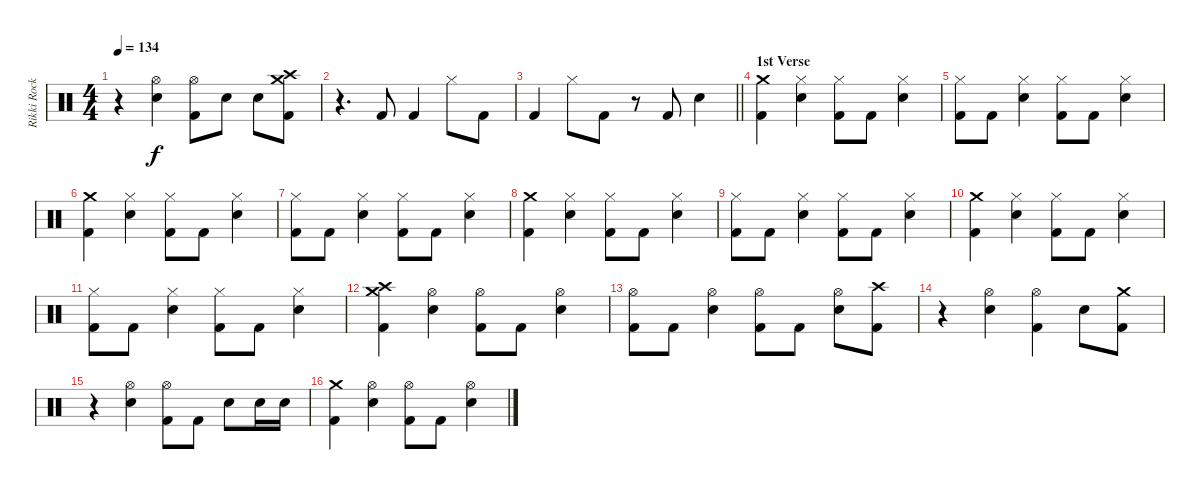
\track ("Rikki Rocket" "Rikki Rock") {instrument percussion}
\staff {score}
\articulation defaults
\ts (4 4)
\tempo 134
\clef neutral
\ks c
r.4{dy f} ("Hi-Hat (open)" "Snare (hit) 2").4 ("Hi-Hat (open)" "Kick (hit) 2").8 "Snare (hit) 2".8 "Snare (hit) 2".8 ("Crash medium (hit)" "Crash high (hit)" "Kick (hit) 2").8 |
r.4{d} "Kick (hit) 2".8 "Kick (hit) 2".4 "Hi-Hat (closed)".8 "Kick (hit) 2".8 |
\barLineRight lightlight "Kick (hit) 2".4 "Hi-Hat (closed)".8 "Kick (hit) 2".8
r.8 "Kick (hit) 2".8 "Snare (hit) 2".4 |
\section ("" "1st Verse")
("Crash medium (hit)" "Kick (hit) 2").4 ("Hi-Hat (closed)" "Snare (hit) 2").4 ("Hi-Hat (closed)" "Kick (hit) 2").8 "Kick (hit) 2".8 ("Hi-Hat (closed)" "Snare (hit) 2").4 |
("Hi-Hat (closed)" "Kick (hit) 2").8 "Kick (hit) 2".8 ("Hi-Hat (closed)" "Snare (hit) 2").4 ("Hi-Hat (closed)" "Kick (hit) 2").8 "Kick (hit) 2".8 ("Hi-Hat (closed)" "Snare (hit) 2").4 |
("Crash medium (hit)" "Kick (hit) 2").4 ("Hi-Hat (closed)" "Snare (hit) 2").4 ("Hi-Hat (closed)" "Kick (hit) 2").8 "Kick (hit) 2".8 ("Hi-Hat (closed)" "Snare (hit) 2").4 |
("Hi-Hat (closed)" "Kick (hit) 2").8 "Kick (hit) 2".8 ("Hi-Hat (closed)" "Snare (hit) 2").4 ("Hi-Hat (closed)" "Kick (hit) 2").8 "Kick (hit) 2".8 ("Hi-Hat (closed)" "Snare (hit) 2").4 |
("Crash medium (hit)" "Kick (hit) 2").4 ("Hi-Hat (closed)" "Snare (hit) 2").4 ("Hi-Hat (closed)" "Kick (hit) 2").8 "Kick (hit) 2".8 ("Hi-Hat (closed)" "Snare (hit) 2").4 |
("Hi-Hat (closed)" "Kick (hit) 2").8 "Kick (hit) 2".8 ("Hi-Hat (closed)" "Snare (hit) 2").4 ("Hi-Hat (closed)" "Kick (hit) 2").8 "Kick (hit) 2".8 ("Hi-Hat (closed)" "Snare (hit) 2").4 |
("Crash medium (hit)" "Kick (hit) 2").4 ("Hi-Hat (closed)" "Snare (hit) 2").4 ("Hi-Hat (closed)" "Kick (hit) 2").8 "Kick (hit) 2".8 ("Hi-Hat (closed)" "Snare (hit) 2").4 |
("Hi-Hat (closed)" "Kick (hit) 2").8 "Kick (hit) 2".8 ("Hi-Hat (closed)" "Snare (hit) 2").4 ("Hi-Hat (closed)" "Kick (hit) 2").8 "Kick (hit) 2".8 ("Hi-Hat (closed)" "Snare (hit) 2").4 |
("Crash medium (hit)" "Crash high (hit)" "Kick (hit) 2").4 ("Hi-Hat (open)" "Snare (hit) 2").4 ("Hi-Hat (open)" "Kick (hit) 2").8 "Kick (hit) 2".8 ("Hi-Hat (open)" "Snare (hit) 2").4 |
("Hi-Hat (open)" "Kick (hit) 2").8 "Kick (hit) 2".8 ("Hi-Hat (open)" "Snare (hit) 2").4 ("Hi-Hat (open)" "Kick (hit) 2").8 "Kick (hit) 2".8 ("Hi-Hat (open)" "Snare (hit) 2").8 ("Crash high (hit)" "Kick (hit) 2").8 |
r.4 ("Hi-Hat (open)" "Snare (hit) 2").4 ("Hi-Hat (open)" "Kick (hit) 2").4 "Snare (hit) 2".8 ("Crash medium (hit)" "Kick (hit) 2").8 |
r.4 ("Hi-Hat (open)" "Snare (hit) 2").4 ("Hi-Hat (open)" "Kick (hit) 2").8 "Kick (hit) 2".8 "Snare (hit) 2".8 "Snare (hit) 2".16 "Snare (hit) 2".16 |
("Crash medium (hit)" "Kick (hit) 2").4 ("Hi-Hat (open)" "Snare (hit) 2").4 ("Hi-Hat (open)" "Kick (hit) 2").8 "Kick (hit) 2".8 ("Hi-Hat (open)" "Snare (hit) 2").4
